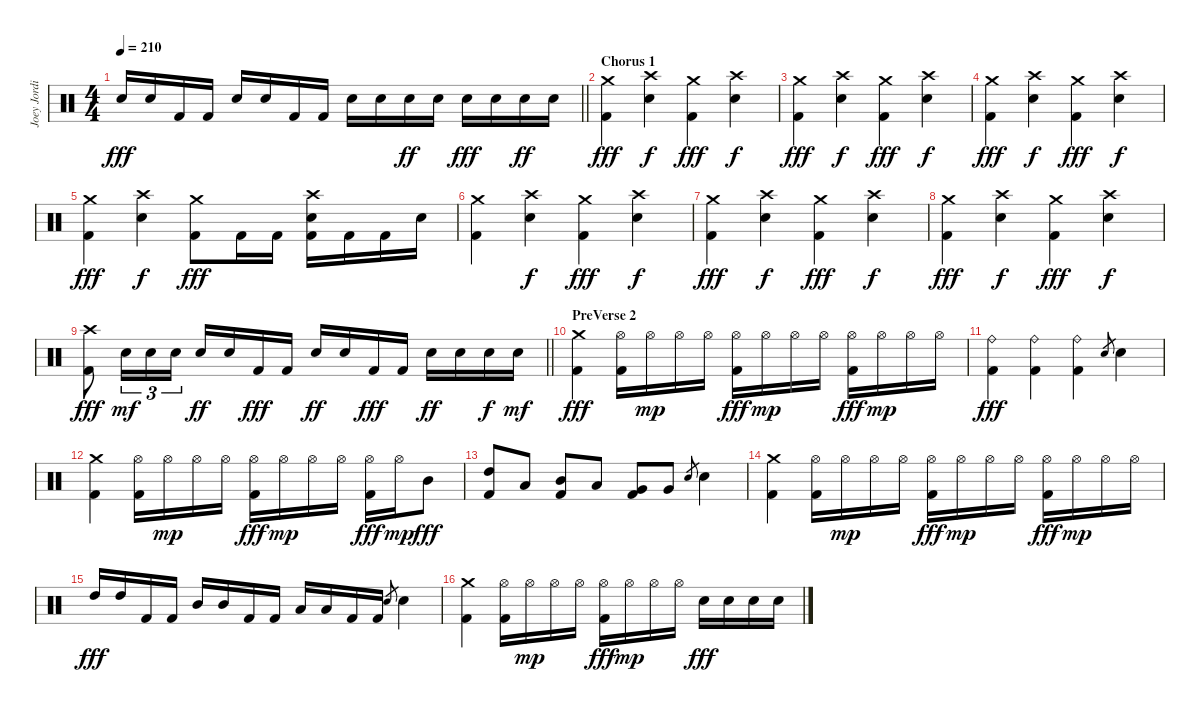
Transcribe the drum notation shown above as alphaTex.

\track ("Joey Jordison" "Joey Jordi") {instrument percussion}
\staff {score}
\articulation defaults
\ts (4 4)
\tempo 210
\clef neutral
\barLineRight lightlight
\ks c "Electric Snare (hit)".16{dy fff} "Electric Snare (hit)".16 "Kick (hit) 2".16 "Kick (hit) 2".16 "Electric Snare (hit)".16 "Electric Snare (hit)".16 "Kick (hit) 2".16 "Kick (hit) 2".16 "Electric Snare (hit)".16 "Electric Snare (hit)".16 "Electric Snare (hit)".16{dy ff} "Electric Snare (hit)".16 "Electric Snare (hit)".16{dy fff} "Electric Snare (hit)".16 "Electric Snare (hit)".16{dy ff} "Electric Snare (hit)".16
|
\section ("" "Chorus 1")
("Crash medium (hit)" "Kick (hit) 2").4{dy fff} ("Crash high (hit)" "Electric Snare (hit)").4{dy f} ("Crash medium (hit)" "Kick (hit) 2").4{dy fff} ("Crash high (hit)" "Electric Snare (hit)").4{dy f} |
("Crash medium (hit)" "Kick (hit) 2").4{dy fff} ("Crash high (hit)" "Electric Snare (hit)").4{dy f} ("Crash medium (hit)" "Kick (hit) 2").4{dy fff} ("Crash high (hit)" "Electric Snare (hit)").4{dy f} |
("Crash medium (hit)" "Kick (hit) 2").4{dy fff} ("Crash high (hit)" "Electric Snare (hit)").4{dy f} ("Crash medium (hit)" "Kick (hit) 2").4{dy fff} ("Crash high (hit)" "Electric Snare (hit)").4{dy f} |
("Crash medium (hit)" "Kick (hit) 2").4{dy fff} ("Crash high (hit)" "Electric Snare (hit)").4{dy f} ("Crash medium (hit)" "Kick (hit) 2").8{dy fff} "Kick (hit) 2".16 "Kick (hit) 2".16 ("Crash high (hit)" "Electric Snare (hit)" "Kick (hit) 2").16 "Kick (hit) 2".16 "Kick (hit) 2".16 "Electric Snare (hit)".16 |
("Crash medium (hit)" "Kick (hit) 2").4 ("Crash high (hit)" "Electric Snare (hit)").4{dy f} ("Crash medium (hit)" "Kick (hit) 2").4{dy fff} ("Crash high (hit)" "Electric Snare (hit)").4{dy f} |
("Crash medium (hit)" "Kick (hit) 2").4{dy fff} ("Crash high (hit)" "Electric Snare (hit)").4{dy f} ("Crash medium (hit)" "Kick (hit) 2").4{dy fff} ("Crash high (hit)" "Electric Snare (hit)").4{dy f} |
("Crash medium (hit)" "Kick (hit) 2").4{dy fff} ("Crash high (hit)" "Electric Snare (hit)").4{dy f} ("Crash medium (hit)" "Kick (hit) 2").4{dy fff} ("Crash high (hit)" "Electric Snare (hit)").4{dy f} |
\barLineRight lightlight
("Crash high (hit)" "Kick (hit) 2").8{dy fff} "Electric Snare (hit)".16{tu (3 2) dy mf} "Electric Snare (hit)".16{tu (3 2)} "Electric Snare (hit)".16{tu (3 2)} "Electric Snare (hit)".16{dy ff} "Electric Snare (hit)".16 "Kick (hit) 2".16{dy fff} "Kick (hit) 2".16 "Electric Snare (hit)".16{dy ff} "Electric Snare (hit)".16 "Kick (hit) 2".16{dy fff} "Kick (hit) 2".16 "Electric Snare (hit)".16{dy ff} "Electric Snare (hit)".16 "Electric Snare (hit)".16{dy f} "Electric Snare (hit)".16{dy mf} |
\section ("" "PreVerse 2")
("Crash medium (hit)" "Kick (hit) 2").4{dy fff} ("Hi-Hat (open)" "Kick (hit) 2").16 "Hi-Hat (open)".16{dy mp} "Hi-Hat (open)".16 "Hi-Hat (open)".16 ("Hi-Hat (open)" "Kick (hit) 2").16{dy fff} "Hi-Hat (open)".16{dy mp} "Hi-Hat (open)".16 "Hi-Hat (open)".16 ("Hi-Hat (open)" "Kick (hit) 2").16{dy fff} "Hi-Hat (open)".16{dy mp} "Hi-Hat (open)".16 "Hi-Hat (open)".16 |
("Ride (bell)" "Kick (hit) 2").4{dy fff} ("Ride (bell)" "Kick (hit) 2").4 ("Ride (bell)" "Kick (hit) 2").4 "Electric Snare (hit)".8{gr} "Electric Snare (hit)".4 |
("Crash medium (hit)" "Kick (hit) 2").4 ("Hi-Hat (open)" "Kick (hit) 2").16 "Hi-Hat (open)".16{dy mp} "Hi-Hat (open)".16 "Hi-Hat (open)".16 ("Hi-Hat (open)" "Kick (hit) 2").16{dy fff} "Hi-Hat (open)".16{dy mp} "Hi-Hat (open)".16 "Hi-Hat (open)".16 ("Hi-Hat (open)" "Kick (hit) 2").16{dy fff} "Hi-Hat (open)".16{dy mp} "Mid Tom (hit)".8{dy fff} |
("High Tom (hit)" "Kick (hit) 2").8 "Low Tom (hit)".8 ("Mid Tom (hit)" "Kick (hit) 2").8 "Low Tom (hit)".8 ("Very Low Tom (hit)" "Kick (hit) 2").8 "Very Low Tom (hit)".8 "Electric Snare (hit)".8{gr} "Electric Snare (hit)".4 |
("Crash medium (hit)" "Kick (hit) 2").4 ("Hi-Hat (open)" "Kick (hit) 2").16 "Hi-Hat (open)".16{dy mp} "Hi-Hat (open)".16 "Hi-Hat (open)".16 ("Hi-Hat (open)" "Kick (hit) 2").16{dy fff} "Hi-Hat (open)".16{dy mp} "Hi-Hat (open)".16 "Hi-Hat (open)".16 ("Hi-Hat (open)" "Kick (hit) 2").16{dy fff} "Hi-Hat (open)".16{dy mp} "Hi-Hat (open)".16 "Hi-Hat (open)".16 |
"High Tom (hit)".16{dy fff} "High Tom (hit)".16 "Kick (hit) 2".16 "Kick (hit) 2".16 "Mid Tom (hit)".16 "Mid Tom (hit)".16 "Kick (hit) 2".16 "Kick (hit) 2".16 "Low Tom (hit)".16 "Low Tom (hit)".16 "Kick (hit) 2".16 "Kick (hit) 2".16 "Electric Snare (hit)".8{gr} "Electric Snare (hit)".4 |
("Crash medium (hit)" "Kick (hit) 2").4 ("Hi-Hat (open)" "Kick (hit) 2").16 "Hi-Hat (open)".16{dy mp} "Hi-Hat (open)".16 "Hi-Hat (open)".16 ("Hi-Hat (open)" "Kick (hit) 2").16{dy fff} "Hi-Hat (open)".16{dy mp} "Hi-Hat (open)".16 "Hi-Hat (open)".16 "Electric Snare (hit)".16{dy fff} "Electric Snare (hit)".16 "Electric Snare (hit)".16 "Electric Snare (hit)".16
